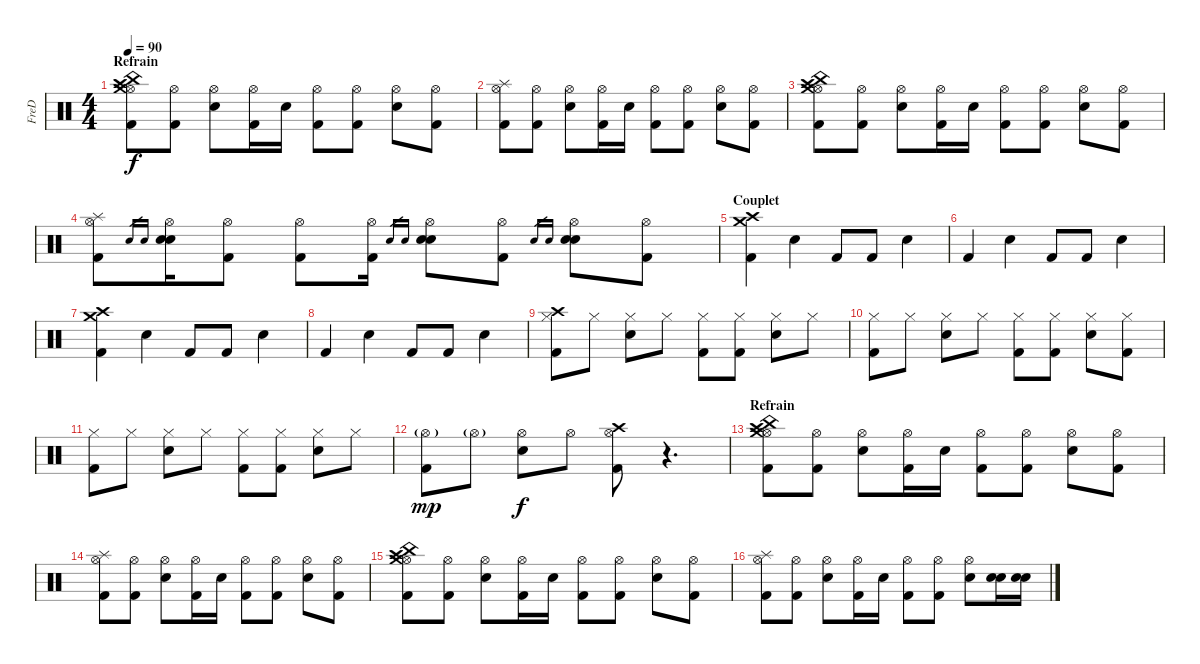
\track ("FreD" "FreD") {instrument percussion}
\staff {score}
\articulation defaults
\ts (4 4)
\section ("" "Refrain")
\tempo 90
\clef neutral
\ks c
("China (hit)" "Hi-Hat (open)" "Crash high (hit)" "Crash medium (hit)" "Kick (hit) 2").8{dy f} ("Hi-Hat (open)" "Kick (hit) 2").8 ("Hi-Hat (open)" "Electric Snare (hit)").8 ("Hi-Hat (open)" "Kick (hit) 2").16 "Electric Snare (hit)".16 ("Hi-Hat (open)" "Kick (hit) 2").8 ("Hi-Hat (open)" "Kick (hit) 2").8 ("Hi-Hat (open)" "Electric Snare (hit)").8 ("Hi-Hat (open)" "Kick (hit) 2").8 |
("Hi-Hat (open)" "Splash (hit)" "Kick (hit) 2").8 ("Hi-Hat (open)" "Kick (hit) 2").8 ("Hi-Hat (open)" "Electric Snare (hit)").8 ("Hi-Hat (open)" "Kick (hit) 2").16 "Electric Snare (hit)".16 ("Hi-Hat (open)" "Kick (hit) 2").8 ("Hi-Hat (open)" "Kick (hit) 2").8 ("Hi-Hat (open)" "Electric Snare (hit)").8 ("Hi-Hat (open)" "Kick (hit) 2").8 |
("China (hit)" "Hi-Hat (open)" "Crash high (hit)" "Crash medium (hit)" "Kick (hit) 2").8 ("Hi-Hat (open)" "Kick (hit) 2").8 ("Hi-Hat (open)" "Electric Snare (hit)").8 ("Hi-Hat (open)" "Kick (hit) 2").16 "Electric Snare (hit)".16 ("Hi-Hat (open)" "Kick (hit) 2").8 ("Hi-Hat (open)" "Kick (hit) 2").8 ("Hi-Hat (open)" "Electric Snare (hit)").8 ("Hi-Hat (open)" "Kick (hit) 2").8 |
("Hi-Hat (open)" "Splash (hit)" "Kick (hit) 2").8 "Electric Snare (hit)".16{gr} "Electric Snare (hit)".16{gr} ("Hi-Hat (open)" "Electric Snare (hit)" "Electric Snare (hit)").16 ("Hi-Hat (open)" "Kick (hit) 2").8 ("Hi-Hat (open)" "Kick (hit) 2").8 ("Hi-Hat (open)" "Kick (hit) 2").16 "Electric Snare (hit)".16{gr} "Electric Snare (hit)".16{gr} ("Hi-Hat (open)" "Electric Snare (hit)" "Electric Snare (hit)").8 ("Hi-Hat (open)" "Kick (hit) 2").8 "Electric Snare (hit)".16{gr} "Electric Snare (hit)".16{gr} ("Hi-Hat (open)" "Electric Snare (hit)" "Electric Snare (hit)").8 ("Hi-Hat (open)" "Kick (hit) 2").8 |
\section ("" "Couplet")
("Crash medium (hit)" "Crash high (hit)" "Kick (hit) 2").4 "Electric Snare (hit)".4 "Kick (hit) 2".8 "Kick (hit) 2".8 "Electric Snare (hit)".4 |
"Kick (hit) 2".4 "Electric Snare (hit)".4 "Kick (hit) 2".8 "Kick (hit) 2".8 "Electric Snare (hit)".4 |
("Crash medium (hit)" "Crash high (hit)" "Kick (hit) 2").4 "Electric Snare (hit)".4 "Kick (hit) 2".8 "Kick (hit) 2".8 "Electric Snare (hit)".4 |
"Kick (hit) 2".4 "Electric Snare (hit)".4 "Kick (hit) 2".8 "Kick (hit) 2".8 "Electric Snare (hit)".4 |
("Crash high (hit)" "Hi-Hat (closed)" "Kick (hit) 2").8 "Hi-Hat (closed)".8 ("Hi-Hat (closed)" "Electric Snare (hit)").8 "Hi-Hat (closed)".8 ("Hi-Hat (closed)" "Kick (hit) 2").8 ("Hi-Hat (closed)" "Kick (hit) 2").8 ("Hi-Hat (closed)" "Electric Snare (hit)").8 "Hi-Hat (closed)".8 |
("Hi-Hat (closed)" "Kick (hit) 2").8 "Hi-Hat (closed)".8 ("Hi-Hat (closed)" "Electric Snare (hit)").8 "Hi-Hat (closed)".8 ("Hi-Hat (closed)" "Kick (hit) 2").8 ("Hi-Hat (closed)" "Kick (hit) 2").8 ("Hi-Hat (closed)" "Electric Snare (hit)").8 ("Hi-Hat (closed)" "Kick (hit) 2").8 |
("Hi-Hat (closed)" "Kick (hit) 2").8 "Hi-Hat (closed)".8 ("Hi-Hat (closed)" "Electric Snare (hit)").8 "Hi-Hat (closed)".8 ("Hi-Hat (closed)" "Kick (hit) 2").8 ("Hi-Hat (closed)" "Kick (hit) 2").8 ("Hi-Hat (closed)" "Electric Snare (hit)").8 "Hi-Hat (closed)".8 |
("Hi-Hat (open)"{g} "Kick (hit) 2").8{dy mp} "Hi-Hat (open)"{g}.8 ("Hi-Hat (open)" "Electric Snare (hit)").8{dy f} "Hi-Hat (open)".8 ("Crash high (hit)" "Hi-Hat (open)" "Kick (hit) 2").8 r.4{d} |
\section ("" "Refrain")
("China (hit)" "Hi-Hat (open)" "Crash high (hit)" "Crash medium (hit)" "Kick (hit) 2").8 ("Hi-Hat (open)" "Kick (hit) 2").8 ("Hi-Hat (open)" "Electric Snare (hit)").8 ("Hi-Hat (open)" "Kick (hit) 2").16 "Electric Snare (hit)".16 ("Hi-Hat (open)" "Kick (hit) 2").8 ("Hi-Hat (open)" "Kick (hit) 2").8 ("Hi-Hat (open)" "Electric Snare (hit)").8 ("Hi-Hat (open)" "Kick (hit) 2").8 |
("Hi-Hat (open)" "Splash (hit)" "Kick (hit) 2").8 ("Hi-Hat (open)" "Kick (hit) 2").8 ("Hi-Hat (open)" "Electric Snare (hit)").8 ("Hi-Hat (open)" "Kick (hit) 2").16 "Electric Snare (hit)".16 ("Hi-Hat (open)" "Kick (hit) 2").8 ("Hi-Hat (open)" "Kick (hit) 2").8 ("Hi-Hat (open)" "Electric Snare (hit)").8 ("Hi-Hat (open)" "Kick (hit) 2").8 |
("China (hit)" "Hi-Hat (open)" "Crash high (hit)" "Crash medium (hit)" "Kick (hit) 2").8 ("Hi-Hat (open)" "Kick (hit) 2").8 ("Hi-Hat (open)" "Electric Snare (hit)").8 ("Hi-Hat (open)" "Kick (hit) 2").16 "Electric Snare (hit)".16 ("Hi-Hat (open)" "Kick (hit) 2").8 ("Hi-Hat (open)" "Kick (hit) 2").8 ("Hi-Hat (open)" "Electric Snare (hit)").8 ("Hi-Hat (open)" "Kick (hit) 2").8 |
("Hi-Hat (open)" "Splash (hit)" "Kick (hit) 2").8 ("Hi-Hat (open)" "Kick (hit) 2").8 ("Hi-Hat (open)" "Electric Snare (hit)").8 ("Hi-Hat (open)" "Kick (hit) 2").16 "Electric Snare (hit)".16 ("Hi-Hat (open)" "Kick (hit) 2").8 ("Hi-Hat (open)" "Kick (hit) 2").8 ("Hi-Hat (open)" "Electric Snare (hit)").8 ("Electric Snare (hit)" "Electric Snare (hit)").16 ("Electric Snare (hit)" "Electric Snare (hit)").16
